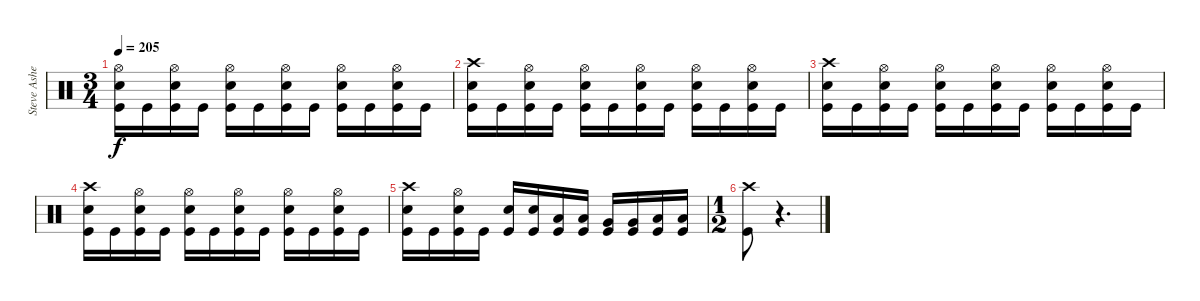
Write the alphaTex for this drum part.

\track ("Steve Asheim" "Steve Ashe") {instrument percussion}
\staff {score}
\articulation defaults
\ts (3 4)
\tempo 205
\clef neutral
\ks c
("Hi-Hat (open)" "Snare (hit) 2" "Kick (hit)").16{dy f} "Kick (hit)".16 ("Hi-Hat (open)" "Snare (hit) 2" "Kick (hit)").16 "Kick (hit)".16 ("Hi-Hat (open)" "Snare (hit) 2" "Kick (hit)").16 "Kick (hit)".16 ("Hi-Hat (open)" "Snare (hit) 2" "Kick (hit)").16 "Kick (hit)".16 ("Hi-Hat (open)" "Snare (hit) 2" "Kick (hit)").16 "Kick (hit)".16 ("Hi-Hat (open)" "Snare (hit) 2" "Kick (hit)").16 "Kick (hit)".16 |
("Crash high (hit)" "Snare (hit) 2" "Kick (hit)").16 "Kick (hit)".16 ("Hi-Hat (open)" "Snare (hit) 2" "Kick (hit)").16 "Kick (hit)".16 ("Hi-Hat (open)" "Snare (hit) 2" "Kick (hit)").16 "Kick (hit)".16 ("Hi-Hat (open)" "Snare (hit) 2" "Kick (hit)").16 "Kick (hit)".16 ("Hi-Hat (open)" "Snare (hit) 2" "Kick (hit)").16 "Kick (hit)".16 ("Hi-Hat (open)" "Snare (hit) 2" "Kick (hit)").16 "Kick (hit)".16 |
("Crash high (hit)" "Snare (hit) 2" "Kick (hit)").16 "Kick (hit)".16 ("Hi-Hat (open)" "Snare (hit) 2" "Kick (hit)").16 "Kick (hit)".16 ("Hi-Hat (open)" "Snare (hit) 2" "Kick (hit)").16 "Kick (hit)".16 ("Hi-Hat (open)" "Snare (hit) 2" "Kick (hit)").16 "Kick (hit)".16 ("Hi-Hat (open)" "Snare (hit) 2" "Kick (hit)").16 "Kick (hit)".16 ("Hi-Hat (open)" "Snare (hit) 2" "Kick (hit)").16 "Kick (hit)".16 |
("Crash high (hit)" "Snare (hit) 2" "Kick (hit)").16 "Kick (hit)".16 ("Hi-Hat (open)" "Snare (hit) 2" "Kick (hit)").16 "Kick (hit)".16 ("Hi-Hat (open)" "Snare (hit) 2" "Kick (hit)").16 "Kick (hit)".16 ("Hi-Hat (open)" "Snare (hit) 2" "Kick (hit)").16 "Kick (hit)".16 ("Hi-Hat (open)" "Snare (hit) 2" "Kick (hit)").16 "Kick (hit)".16 ("Hi-Hat (open)" "Snare (hit) 2" "Kick (hit)").16 "Kick (hit)".16 |
("Crash high (hit)" "Snare (hit) 2" "Kick (hit)").16 "Kick (hit)".16 ("Hi-Hat (open)" "Snare (hit) 2" "Kick (hit)").16 "Kick (hit)".16 ("Snare (hit) 2" "Kick (hit)").16 ("Snare (hit) 2" "Kick (hit)").16 ("Low Tom (hit)" "Kick (hit)").16 ("Low Tom (hit)" "Kick (hit)").16 ("Very Low Tom (hit)" "Kick (hit)").16 ("Very Low Tom (hit)" "Kick (hit)").16 ("Low Floor Tom (hit)" "Kick (hit)").16 ("Low Floor Tom (hit)" "Kick (hit)").16 |
\ts (1 2)
("Crash high (hit)" "Kick (hit)").8 r.4{d}
